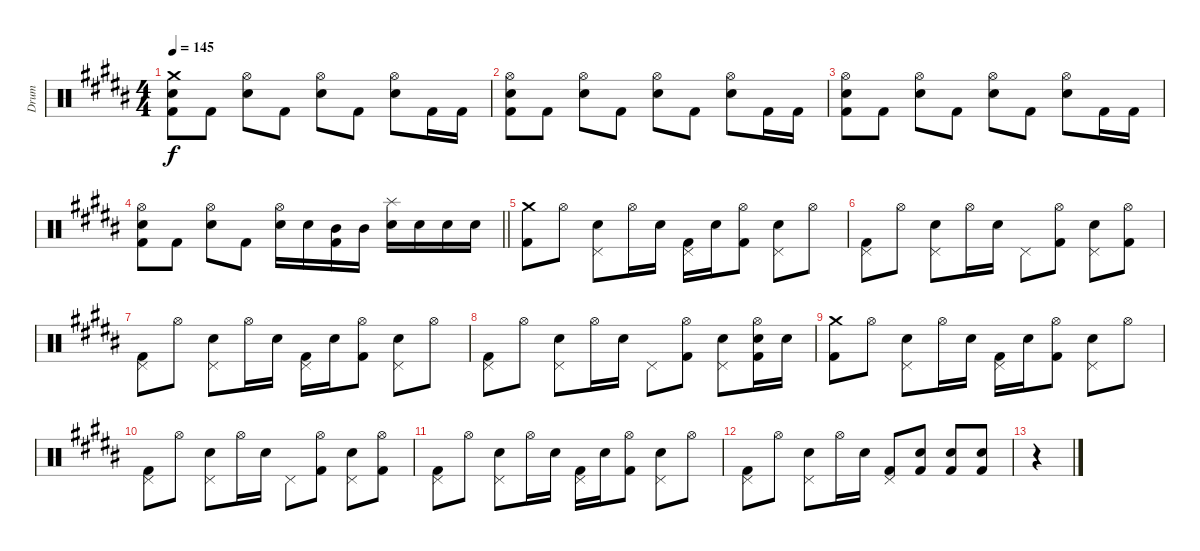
\track ("Drum" "Drum") {instrument percussion}
\staff {score}
\articulation defaults
\ts (4 4)
\tempo 145
\clef neutral
\ks b
("Crash medium (hit)" "Snare (hit) 2" "Kick (hit) 2").8{dy f} "Kick (hit) 2".8 ("Hi-Hat (open)" "Snare (hit) 2").8 "Kick (hit) 2".8 ("Hi-Hat (open)" "Snare (hit) 2").8 "Kick (hit) 2".8 ("Hi-Hat (open)" "Snare (hit) 2").8 "Kick (hit) 2".16 "Kick (hit) 2".16 |
("Hi-Hat (open)" "Snare (hit) 2" "Kick (hit) 2").8 "Kick (hit) 2".8 ("Hi-Hat (open)" "Snare (hit) 2").8 "Kick (hit) 2".8 ("Hi-Hat (open)" "Snare (hit) 2").8 "Kick (hit) 2".8 ("Hi-Hat (open)" "Snare (hit) 2").8 "Kick (hit) 2".16 "Kick (hit) 2".16 |
("Hi-Hat (open)" "Snare (hit) 2" "Kick (hit) 2").8 "Kick (hit) 2".8 ("Hi-Hat (open)" "Snare (hit) 2").8 "Kick (hit) 2".8 ("Hi-Hat (open)" "Snare (hit) 2").8 "Kick (hit) 2".8 ("Hi-Hat (open)" "Snare (hit) 2").8 "Kick (hit) 2".16 "Kick (hit) 2".16 |
\barLineRight lightlight
("Hi-Hat (open)" "Snare (hit) 2" "Kick (hit) 2").8 "Kick (hit) 2".8 ("Hi-Hat (open)" "Snare (hit) 2").8 "Kick (hit) 2".8 ("Hi-Hat (open)" "Snare (hit) 2").16 "Snare (hit) 2".16 ("Mid Tom (hit)" "Kick (hit) 2").16 "Mid Tom (hit)".16 ("Splash (hit)" "Snare (hit) 2").16 "Snare (hit) 2".16 "Snare (hit) 2".16 "Snare (hit) 2".16 |
("Crash medium (hit)" "Kick (hit) 2").8 "Hi-Hat (open)".8 ("Pedal Hi-Hat (hit)" "Snare (hit) 2").8 "Hi-Hat (open)".16 "Snare (hit) 2".16 ("Pedal Hi-Hat (hit)" "Kick (hit) 2").16 "Snare (hit) 2".16 ("Hi-Hat (open)" "Kick (hit) 2").8 ("Pedal Hi-Hat (hit)" "Snare (hit) 2").8 "Hi-Hat (open)".8 |
("Pedal Hi-Hat (hit)" "Kick (hit) 2").8 "Hi-Hat (open)".8 ("Pedal Hi-Hat (hit)" "Snare (hit) 2").8 "Hi-Hat (open)".16 "Snare (hit) 2".16 "Pedal Hi-Hat (hit)".8 ("Hi-Hat (open)" "Kick (hit) 2").8 ("Pedal Hi-Hat (hit)" "Snare (hit) 2").8 ("Hi-Hat (open)" "Kick (hit) 2").8 |
("Pedal Hi-Hat (hit)" "Kick (hit) 2").8 "Hi-Hat (open)".8 ("Pedal Hi-Hat (hit)" "Snare (hit) 2").8 "Hi-Hat (open)".16 "Snare (hit) 2".16 ("Pedal Hi-Hat (hit)" "Kick (hit) 2").16 "Snare (hit) 2".16 ("Hi-Hat (open)" "Kick (hit) 2").8 ("Pedal Hi-Hat (hit)" "Snare (hit) 2").8 "Hi-Hat (open)".8 |
("Pedal Hi-Hat (hit)" "Kick (hit) 2").8 "Hi-Hat (open)".8 ("Pedal Hi-Hat (hit)" "Snare (hit) 2").8 "Hi-Hat (open)".16 "Snare (hit) 2".16 "Pedal Hi-Hat (hit)".8 ("Hi-Hat (open)" "Kick (hit) 2").8 ("Pedal Hi-Hat (hit)" "Snare (hit) 2").8 ("Hi-Hat (open)" "Snare (hit) 2" "Kick (hit) 2").16 "Snare (hit) 2".16 |
("Crash medium (hit)" "Kick (hit) 2").8 "Hi-Hat (open)".8 ("Pedal Hi-Hat (hit)" "Snare (hit) 2").8 "Hi-Hat (open)".16 "Snare (hit) 2".16 ("Pedal Hi-Hat (hit)" "Kick (hit) 2").16 "Snare (hit) 2".16 ("Hi-Hat (open)" "Kick (hit) 2").8 ("Pedal Hi-Hat (hit)" "Snare (hit) 2").8 "Hi-Hat (open)".8 |
("Pedal Hi-Hat (hit)" "Kick (hit) 2").8 "Hi-Hat (open)".8 ("Pedal Hi-Hat (hit)" "Snare (hit) 2").8 "Hi-Hat (open)".16 "Snare (hit) 2".16 "Pedal Hi-Hat (hit)".8 ("Hi-Hat (open)" "Kick (hit) 2").8 ("Pedal Hi-Hat (hit)" "Snare (hit) 2").8 ("Hi-Hat (open)" "Kick (hit) 2").8 |
("Pedal Hi-Hat (hit)" "Kick (hit) 2").8 "Hi-Hat (open)".8 ("Pedal Hi-Hat (hit)" "Snare (hit) 2").8 "Hi-Hat (open)".16 "Snare (hit) 2".16 ("Pedal Hi-Hat (hit)" "Kick (hit) 2").16 "Snare (hit) 2".16 ("Hi-Hat (open)" "Kick (hit) 2").8 ("Pedal Hi-Hat (hit)" "Snare (hit) 2").8 "Hi-Hat (open)".8 |
("Pedal Hi-Hat (hit)" "Kick (hit) 2").8 "Hi-Hat (open)".8 ("Pedal Hi-Hat (hit)" "Snare (hit) 2").8 "Hi-Hat (open)".16 "Snare (hit) 2".16 ("Pedal Hi-Hat (hit)" "Kick (hit) 2").8 ("Snare (hit) 2" "Kick (hit) 2").8 ("Snare (hit) 2" "Kick (hit) 2").8 ("Snare (hit) 2" "Kick (hit) 2").8 |
r.4
